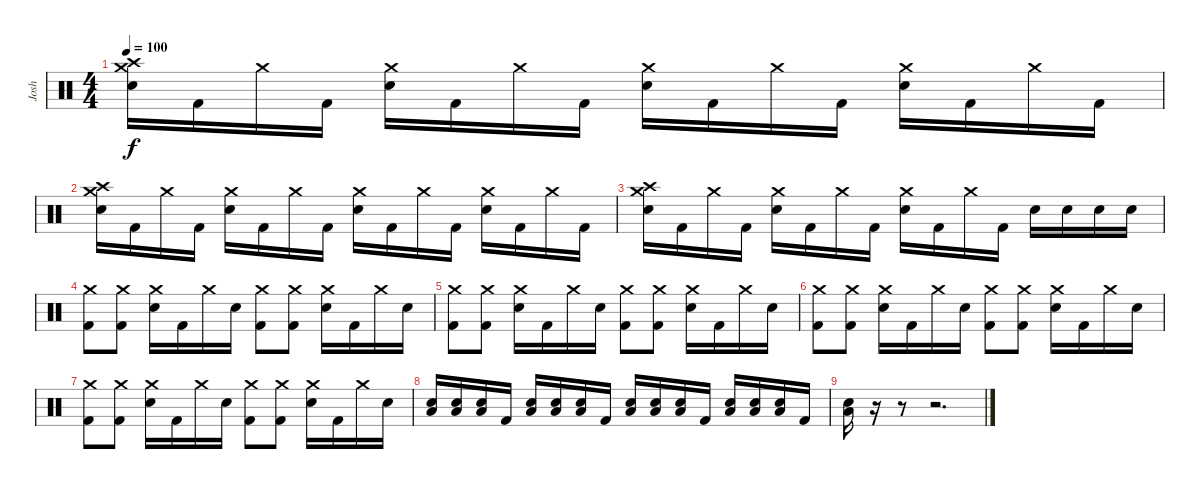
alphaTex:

\track ("Josh" "Josh") {instrument percussion}
\staff {score}
\articulation defaults
\ts (4 4)
\tempo 100
\clef neutral
\ks c
("Crash high (hit)" "Crash medium (hit)" "Electric Snare (hit)").16{dy f} "Kick (hit) 2".16 "Crash medium (hit)".16 "Kick (hit) 2".16 ("Crash medium (hit)" "Electric Snare (hit)").16 "Kick (hit) 2".16 "Crash medium (hit)".16 "Kick (hit) 2".16 ("Crash medium (hit)" "Electric Snare (hit)").16 "Kick (hit) 2".16 "Crash medium (hit)".16 "Kick (hit) 2".16 ("Crash medium (hit)" "Electric Snare (hit)").16 "Kick (hit) 2".16 "Crash medium (hit)".16 "Kick (hit) 2".16 |
("Crash high (hit)" "Crash medium (hit)" "Electric Snare (hit)").16 "Kick (hit) 2".16 "Crash medium (hit)".16 "Kick (hit) 2".16 ("Crash medium (hit)" "Electric Snare (hit)").16 "Kick (hit) 2".16 "Crash medium (hit)".16 "Kick (hit) 2".16 ("Crash medium (hit)" "Electric Snare (hit)").16 "Kick (hit) 2".16 "Crash medium (hit)".16 "Kick (hit) 2".16 ("Crash medium (hit)" "Electric Snare (hit)").16 "Kick (hit) 2".16 "Crash medium (hit)".16 "Kick (hit) 2".16 |
("Crash high (hit)" "Crash medium (hit)" "Electric Snare (hit)").16 "Kick (hit) 2".16 "Crash medium (hit)".16 "Kick (hit) 2".16 ("Crash medium (hit)" "Electric Snare (hit)").16 "Kick (hit) 2".16 "Crash medium (hit)".16 "Kick (hit) 2".16 ("Crash medium (hit)" "Electric Snare (hit)").16 "Kick (hit) 2".16 "Crash medium (hit)".16 "Kick (hit) 2".16 "Electric Snare (hit)".16 "Electric Snare (hit)".16 "Electric Snare (hit)".16 "Electric Snare (hit)".16 |
("Crash medium (hit)" "Kick (hit) 2").8 ("Crash medium (hit)" "Kick (hit) 2").8 ("Crash medium (hit)" "Electric Snare (hit)").16 "Kick (hit) 2".16 "Crash medium (hit)".16 "Electric Snare (hit)".16 ("Crash medium (hit)" "Kick (hit) 2").8 ("Crash medium (hit)" "Kick (hit) 2").8 ("Crash medium (hit)" "Electric Snare (hit)").16 "Kick (hit) 2".16 "Crash medium (hit)".16 "Electric Snare (hit)".16 |
("Crash medium (hit)" "Kick (hit) 2").8 ("Crash medium (hit)" "Kick (hit) 2").8 ("Crash medium (hit)" "Electric Snare (hit)").16 "Kick (hit) 2".16 "Crash medium (hit)".16 "Electric Snare (hit)".16 ("Crash medium (hit)" "Kick (hit) 2").8 ("Crash medium (hit)" "Kick (hit) 2").8 ("Crash medium (hit)" "Electric Snare (hit)").16 "Kick (hit) 2".16 "Crash medium (hit)".16 "Electric Snare (hit)".16 |
("Crash medium (hit)" "Kick (hit) 2").8 ("Crash medium (hit)" "Kick (hit) 2").8 ("Crash medium (hit)" "Electric Snare (hit)").16 "Kick (hit) 2".16 "Crash medium (hit)".16 "Electric Snare (hit)".16 ("Crash medium (hit)" "Kick (hit) 2").8 ("Crash medium (hit)" "Kick (hit) 2").8 ("Crash medium (hit)" "Electric Snare (hit)").16 "Kick (hit) 2".16 "Crash medium (hit)".16 "Electric Snare (hit)".16 |
("Crash medium (hit)" "Kick (hit) 2").8 ("Crash medium (hit)" "Kick (hit) 2").8 ("Crash medium (hit)" "Electric Snare (hit)").16 "Kick (hit) 2".16 "Crash medium (hit)".16 "Electric Snare (hit)".16 ("Crash medium (hit)" "Kick (hit) 2").8 ("Crash medium (hit)" "Kick (hit) 2").8 ("Crash medium (hit)" "Electric Snare (hit)").16 "Kick (hit) 2".16 "Crash medium (hit)".16 "Electric Snare (hit)".16 |
("Electric Snare (hit)" "Low Floor Tom (hit)").16 ("Electric Snare (hit)" "Low Floor Tom (hit)").16 ("Electric Snare (hit)" "Low Floor Tom (hit)").16 "Kick (hit) 2".16 ("Electric Snare (hit)" "Low Floor Tom (hit)").16 ("Electric Snare (hit)" "Low Floor Tom (hit)").16 ("Electric Snare (hit)" "Low Floor Tom (hit)").16 "Kick (hit) 2".16 ("Electric Snare (hit)" "Low Floor Tom (hit)").16 ("Electric Snare (hit)" "Low Floor Tom (hit)").16 ("Electric Snare (hit)" "Low Floor Tom (hit)").16 "Kick (hit) 2".16 ("Electric Snare (hit)" "Low Floor Tom (hit)").16 ("Electric Snare (hit)" "Low Floor Tom (hit)").16 ("Electric Snare (hit)" "Low Floor Tom (hit)").16 "Kick (hit) 2".16 |
("Electric Snare (hit)" "Low Floor Tom (hit)").16 r.16 r.8 r.2{d}
